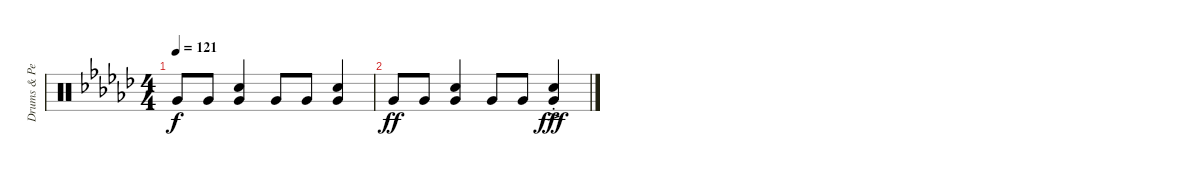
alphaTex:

\track ("Drums & Percussion" "Drums & Pe") {instrument percussion bank 98}
\staff {score}
\articulation defaults
\ts (4 4)
\tempo 121
\clef neutral
\ks ebminor "Very Low Tom (hit)".8{dy f} "Very Low Tom (hit)".8
("Snare (hit) 2" "Very Low Tom (hit)").4 "Very Low Tom (hit)".8 "Very Low Tom (hit)".8 ("Snare (hit) 2" "Very Low Tom (hit)").4 |
"Very Low Tom (hit)".8{dy ff} "Very Low Tom (hit)".8 ("Snare (hit) 2" "Very Low Tom (hit)").4 "Very Low Tom (hit)".8 "Very Low Tom (hit)".8 ("Snare (hit) 2"{ac st} "Very Low Tom (hit)"{ac st}).4{dy fff}
